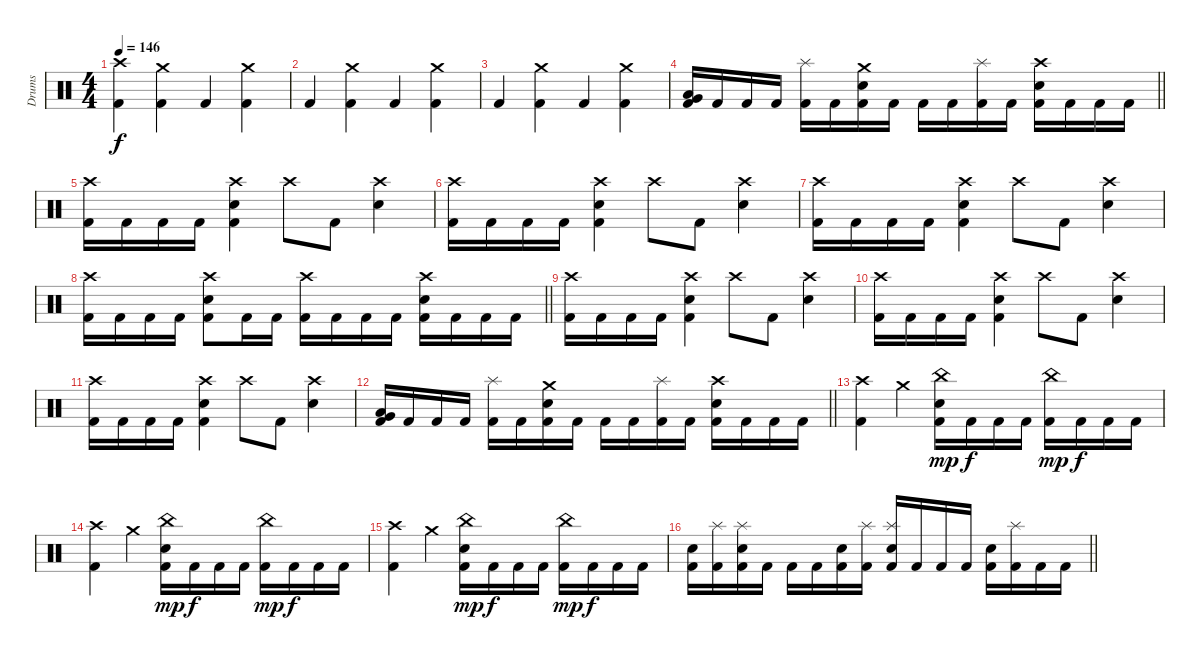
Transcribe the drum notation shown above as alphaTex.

\track ("Drums" "Drums") {instrument percussion}
\staff {score}
\articulation defaults
\ts (4 4)
\tempo 146
\clef neutral
\ks c
("Crash high (hit)" "Kick (hit) 2").4{dy f} ("Crash medium (hit)" "Kick (hit) 2").4 "Kick (hit) 2".4 ("Crash medium (hit)" "Kick (hit) 2").4 |
"Kick (hit) 2".4 ("Crash medium (hit)" "Kick (hit) 2").4 "Kick (hit) 2".4 ("Crash medium (hit)" "Kick (hit) 2").4 |
"Kick (hit) 2".4 ("Crash medium (hit)" "Kick (hit) 2").4 "Kick (hit) 2".4 ("Crash medium (hit)" "Kick (hit) 2").4 |
\barLineRight lightlight
("Very Low Tom (hit)" "Low Floor Tom (hit)" "Kick (hit) 2").16 "Kick (hit) 2".16 "Kick (hit) 2".16 "Kick (hit) 2".16 ("Splash (hit)" "Kick (hit) 2").16 "Kick (hit) 2".16 ("Crash medium (hit)" "Electric Snare (hit)" "Kick (hit) 2").16 "Kick (hit) 2".16 "Kick (hit) 2".16 "Kick (hit) 2".16 ("Splash (hit)" "Kick (hit) 2").16 "Kick (hit) 2".16 ("Crash high (hit)" "Electric Snare (hit)" "Kick (hit) 2").16 "Kick (hit) 2".16 "Kick (hit) 2".16 "Kick (hit) 2".16 |
("Crash high (hit)" "Kick (hit) 2").16 "Kick (hit) 2".16 "Kick (hit) 2".16 "Kick (hit) 2".16 ("Crash high (hit)" "Electric Snare (hit)" "Kick (hit) 2").4 "Crash high (hit)".8 "Kick (hit) 2".8 ("Crash high (hit)" "Electric Snare (hit)").4 |
("Crash high (hit)" "Kick (hit) 2").16 "Kick (hit) 2".16 "Kick (hit) 2".16 "Kick (hit) 2".16 ("Crash high (hit)" "Electric Snare (hit)" "Kick (hit) 2").4 "Crash high (hit)".8 "Kick (hit) 2".8 ("Crash high (hit)" "Electric Snare (hit)").4 |
("Crash high (hit)" "Kick (hit) 2").16 "Kick (hit) 2".16 "Kick (hit) 2".16 "Kick (hit) 2".16 ("Crash high (hit)" "Electric Snare (hit)" "Kick (hit) 2").4 "Crash high (hit)".8 "Kick (hit) 2".8 ("Crash high (hit)" "Electric Snare (hit)").4 |
\barLineRight lightlight
("Crash high (hit)" "Kick (hit) 2").16 "Kick (hit) 2".16 "Kick (hit) 2".16 "Kick (hit) 2".16 ("Crash high (hit)" "Electric Snare (hit)" "Kick (hit) 2").8 "Kick (hit) 2".16 "Kick (hit) 2".16 ("Crash high (hit)" "Kick (hit) 2").16 "Kick (hit) 2".16 "Kick (hit) 2".16 "Kick (hit) 2".16 ("Crash high (hit)" "Electric Snare (hit)" "Kick (hit) 2").16 "Kick (hit) 2".16 "Kick (hit) 2".16 "Kick (hit) 2".16 |
("Crash high (hit)" "Kick (hit) 2").16 "Kick (hit) 2".16 "Kick (hit) 2".16 "Kick (hit) 2".16 ("Crash high (hit)" "Electric Snare (hit)" "Kick (hit) 2").4 "Crash high (hit)".8 "Kick (hit) 2".8 ("Crash high (hit)" "Electric Snare (hit)").4 |
("Crash high (hit)" "Kick (hit) 2").16 "Kick (hit) 2".16 "Kick (hit) 2".16 "Kick (hit) 2".16 ("Crash high (hit)" "Electric Snare (hit)" "Kick (hit) 2").4 "Crash high (hit)".8 "Kick (hit) 2".8 ("Crash high (hit)" "Electric Snare (hit)").4 |
("Crash high (hit)" "Kick (hit) 2").16 "Kick (hit) 2".16 "Kick (hit) 2".16 "Kick (hit) 2".16 ("Crash high (hit)" "Electric Snare (hit)" "Kick (hit) 2").4 "Crash high (hit)".8 "Kick (hit) 2".8 ("Crash high (hit)" "Electric Snare (hit)").4 |
\barLineRight lightlight
("Very Low Tom (hit)" "Low Floor Tom (hit)" "Kick (hit) 2").16 "Kick (hit) 2".16 "Kick (hit) 2".16 "Kick (hit) 2".16 ("Splash (hit)" "Kick (hit) 2").16 "Kick (hit) 2".16 ("Crash medium (hit)" "Electric Snare (hit)" "Kick (hit) 2").16 "Kick (hit) 2".16 "Kick (hit) 2".16 "Kick (hit) 2".16 ("Splash (hit)" "Kick (hit) 2").16 "Kick (hit) 2".16 ("Crash high (hit)" "Electric Snare (hit)" "Kick (hit) 2").16 "Kick (hit) 2".16 "Kick (hit) 2".16 "Kick (hit) 2".16 |
("Crash high (hit)" "Kick (hit) 2").4 "Crash medium (hit)".4 ("China (hit)" "Electric Snare (hit)" "Kick (hit) 2").16{dy mp} "Kick (hit) 2".16{dy f} "Kick (hit) 2".16 "Kick (hit) 2".16 ("China (hit)" "Kick (hit) 2").16{dy mp} "Kick (hit) 2".16{dy f} "Kick (hit) 2".16 "Kick (hit) 2".16 |
("Crash high (hit)" "Kick (hit) 2").4 "Crash medium (hit)".4 ("China (hit)" "Electric Snare (hit)" "Kick (hit) 2").16{dy mp} "Kick (hit) 2".16{dy f} "Kick (hit) 2".16 "Kick (hit) 2".16 ("China (hit)" "Kick (hit) 2").16{dy mp} "Kick (hit) 2".16{dy f} "Kick (hit) 2".16 "Kick (hit) 2".16 |
("Crash high (hit)" "Kick (hit) 2").4 "Crash medium (hit)".4 ("China (hit)" "Electric Snare (hit)" "Kick (hit) 2").16{dy mp} "Kick (hit) 2".16{dy f} "Kick (hit) 2".16 "Kick (hit) 2".16 ("China (hit)" "Kick (hit) 2").16{dy mp} "Kick (hit) 2".16{dy f} "Kick (hit) 2".16 "Kick (hit) 2".16 |
\barLineRight lightlight
("Electric Snare (hit)" "Kick (hit) 2").16 ("Splash (hit)" "Kick (hit) 2").16 ("Splash (hit)" "Electric Snare (hit)" "Kick (hit) 2").16 "Kick (hit) 2".16 "Kick (hit) 2".16 "Kick (hit) 2".16 ("Electric Snare (hit)" "Kick (hit) 2").16 ("Splash (hit)" "Kick (hit) 2").16 ("Splash (hit)" "Electric Snare (hit)" "Kick (hit) 2").16 "Kick (hit) 2".16 "Kick (hit) 2".16 "Kick (hit) 2".16 ("Electric Snare (hit)" "Kick (hit) 2").16 ("Splash (hit)" "Kick (hit) 2").16 "Kick (hit) 2".16 "Kick (hit) 2".16
